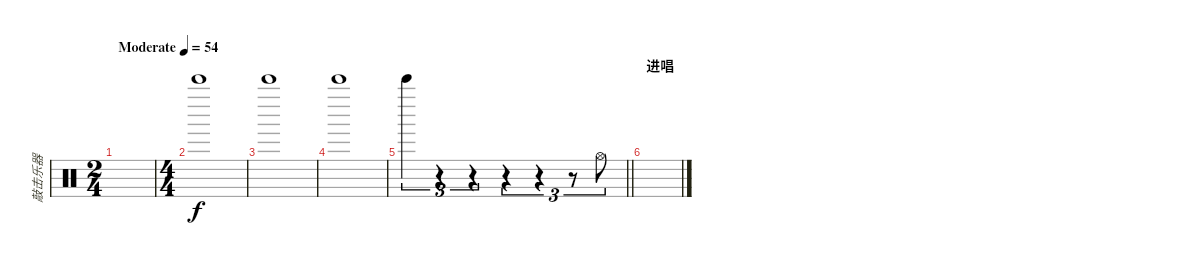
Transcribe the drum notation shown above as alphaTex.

\track ("敲击乐器" "敲击乐器") {instrument percussion}
\staff {score}
\articulation defaults
\ts (2 4)
\tempo (54 "Moderate")
\clef neutral
\ks c
|
\ts (4 4)
"Bell Tree (hit)".1 |
"Bell Tree (hit)".1 |
"Bell Tree (hit)".1 |
\barLineRight lightlight "Bell Tree (hit)".4{tu (3 2)}
r.4{tu (3 2)} r.4{tu (3 2)} r.4{tu (3 2)} r.4{tu (3 2)} r.8{tu (3 2)} "Hi-Hat (open)".8{tu (3 2)} |
\section ("" "进唱")
